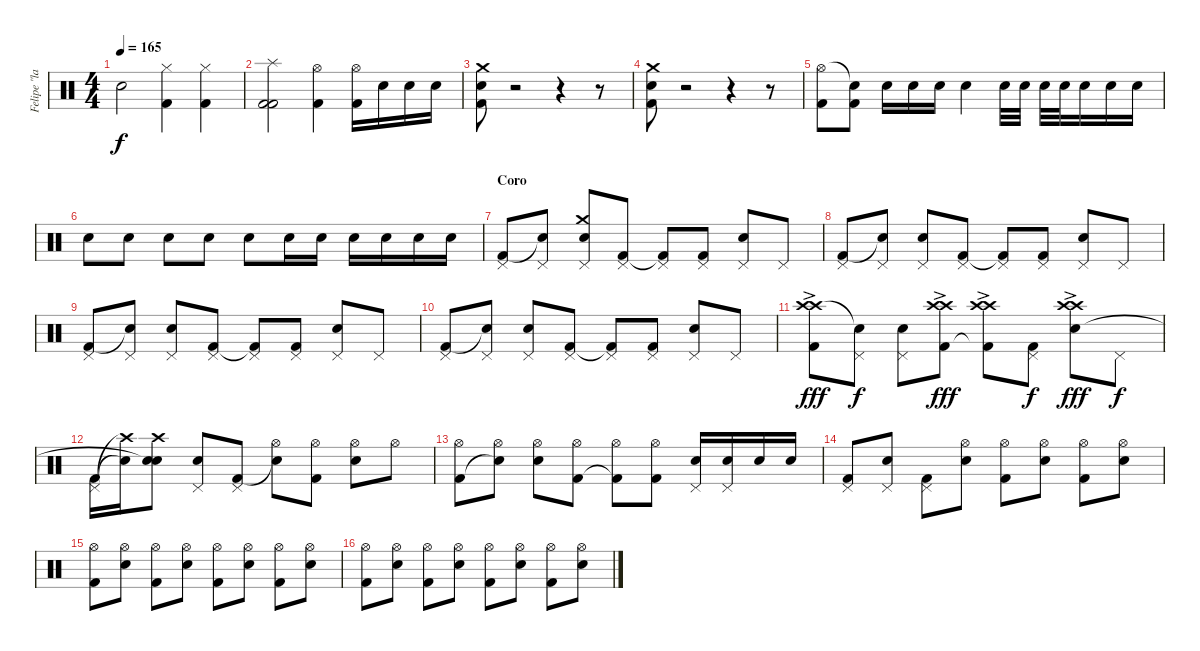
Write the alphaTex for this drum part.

\track ("Felipe \"la caponera\" Muñoz" "Felipe \"la") {instrument percussion}
\staff {score}
\articulation defaults
\ts (4 4)
\tempo 165
\clef neutral
\ks c "Electric Snare (hit)".2{dy f}
("Hi-Hat (closed)" "Kick (hit) 2").4 ("Hi-Hat (closed)" "Kick (hit) 2").4 |
("Splash (hit)" "Kick (hit) 2" "Kick (hit) 2").2 ("Hi-Hat (open)" "Kick (hit) 2").4 ("Hi-Hat (open)" "Kick (hit) 2").16 "Electric Snare (hit)".16 "Electric Snare (hit)".16 "Electric Snare (hit)".16 |
("Crash medium (hit)" "Electric Snare (hit)" "Kick (hit) 2").8 r.2 r.4 r.8 |
("Crash medium (hit)" "Electric Snare (hit)" "Kick (hit) 2").8 r.2 r.4 r.8 |
("Hi-Hat (open)" "Kick (hit) 2").8 ("Snare (hit)"{t} "Kick (hit) 2").8 "Electric Snare (hit)".16 "Electric Snare (hit)".16 "Electric Snare (hit)".16 "Electric Snare (hit)".4 "Electric Snare (hit)".32 "Electric Snare (hit)".32 "Electric Snare (hit)".32 "Electric Snare (hit)".32 "Electric Snare (hit)".16 "Electric Snare (hit)".16 "Electric Snare (hit)".16 |
"Electric Snare (hit)".8 "Electric Snare (hit)".8 "Electric Snare (hit)".8 "Electric Snare (hit)".8 "Electric Snare (hit)".8 "Electric Snare (hit)".16 "Electric Snare (hit)".16 "Electric Snare (hit)".16 "Electric Snare (hit)".16 "Electric Snare (hit)".16 "Electric Snare (hit)".16 |
\section ("" "Coro")
("Pedal Hi-Hat (hit)" "Kick (hit) 2").8 ("Pedal Hi-Hat (hit)" "Snare (hit)"{t}).8 ("Pedal Hi-Hat (hit)" "Crash medium (hit)" "Electric Snare (hit)").8 ("Pedal Hi-Hat (hit)" "Kick (hit) 2").8 ("Pedal Hi-Hat (hit)" "Kick (hit) 2"{t}).8 ("Pedal Hi-Hat (hit)" "Kick (hit) 2").8 ("Pedal Hi-Hat (hit)" "Electric Snare (hit)").8 "Pedal Hi-Hat (hit)".8 |
("Pedal Hi-Hat (hit)" "Kick (hit) 2").8 ("Pedal Hi-Hat (hit)" "Snare (hit)"{t}).8 ("Pedal Hi-Hat (hit)" "Electric Snare (hit)").8 ("Pedal Hi-Hat (hit)" "Kick (hit) 2").8 ("Pedal Hi-Hat (hit)" "Kick (hit) 2"{t}).8 ("Pedal Hi-Hat (hit)" "Kick (hit) 2").8 ("Pedal Hi-Hat (hit)" "Electric Snare (hit)").8 "Pedal Hi-Hat (hit)".8 |
("Pedal Hi-Hat (hit)" "Kick (hit) 2").8 ("Pedal Hi-Hat (hit)" "Snare (hit)"{t}).8 ("Pedal Hi-Hat (hit)" "Electric Snare (hit)").8 ("Pedal Hi-Hat (hit)" "Kick (hit) 2").8 ("Pedal Hi-Hat (hit)" "Kick (hit) 2"{t}).8 ("Pedal Hi-Hat (hit)" "Kick (hit) 2").8 ("Pedal Hi-Hat (hit)" "Electric Snare (hit)").8 "Pedal Hi-Hat (hit)".8 |
("Pedal Hi-Hat (hit)" "Kick (hit) 2").8 ("Pedal Hi-Hat (hit)" "Snare (hit)"{t}).8 ("Pedal Hi-Hat (hit)" "Electric Snare (hit)").8 ("Pedal Hi-Hat (hit)" "Kick (hit) 2").8 ("Pedal Hi-Hat (hit)" "Kick (hit) 2"{t}).8 ("Pedal Hi-Hat (hit)" "Kick (hit) 2").8 ("Pedal Hi-Hat (hit)" "Electric Snare (hit)").8 "Pedal Hi-Hat (hit)".8 |
("Crash high (hit)"{ac} "Crash high (hit)"{ac} "Kick (hit) 2").8{dy fff} ("Pedal Hi-Hat (hit)" "Snare (hit)"{t}).8{dy f} ("Pedal Hi-Hat (hit)" "Electric Snare (hit)").8 ("Crash high (hit)"{ac} "Crash high (hit)"{ac} "Kick (hit) 2").8{dy fff} ("Crash high (hit)"{ac} "Crash high (hit)"{ac} "Kick (hit) 2"{t}).8 ("Pedal Hi-Hat (hit)" "Kick (hit) 2").8{dy f} ("Crash high (hit)"{ac} "Crash high (hit)"{ac} "Electric Snare (hit)").8{dy fff} "Pedal Hi-Hat (hit)".8{dy f} |
("Pedal Hi-Hat (hit)" "Kick (hit) 2").16 ("Crash high (hit)"{t} "Snare (hit)"{t}).16 ("Crash high (hit)" "Electric Snare (hit)" "Snare (hit)"{t}).8 ("Pedal Hi-Hat (hit)" "Electric Snare (hit)").8 ("Pedal Hi-Hat (hit)" "Kick (hit) 2").8 ("Hi-Hat (open)" "Snare (hit)"{t}).8 ("Hi-Hat (open)" "Kick (hit) 2").8 ("Hi-Hat (open)" "Electric Snare (hit)").8 "Hi-Hat (open)".8 |
("Hi-Hat (open)" "Kick (hit) 2").8 ("Hi-Hat (open)" "Snare (hit)"{t}).8 ("Hi-Hat (open)" "Electric Snare (hit)").8 ("Hi-Hat (open)" "Kick (hit) 2").8 ("Hi-Hat (open)" "Kick (hit) 2"{t}).8 ("Hi-Hat (open)" "Kick (hit) 2").8 ("Pedal Hi-Hat (hit)" "Electric Snare (hit)").16 ("Pedal Hi-Hat (hit)" "Electric Snare (hit)").16 "Electric Snare (hit)".16 "Electric Snare (hit)".16 |
("Pedal Hi-Hat (hit)" "Kick (hit) 2").8 ("Pedal Hi-Hat (hit)" "Electric Snare (hit)").8 ("Pedal Hi-Hat (hit)" "Kick (hit) 2").8 ("Hi-Hat (open)" "Electric Snare (hit)").8 ("Hi-Hat (open)" "Kick (hit) 2").8 ("Hi-Hat (open)" "Electric Snare (hit)").8 ("Hi-Hat (open)" "Kick (hit) 2").8 ("Hi-Hat (open)" "Electric Snare (hit)").8 |
("Hi-Hat (open)" "Kick (hit) 2").8 ("Hi-Hat (open)" "Electric Snare (hit)").8 ("Hi-Hat (open)" "Kick (hit) 2").8 ("Hi-Hat (open)" "Electric Snare (hit)").8 ("Hi-Hat (open)" "Kick (hit) 2").8 ("Hi-Hat (open)" "Electric Snare (hit)").8 ("Hi-Hat (open)" "Kick (hit) 2").8 ("Hi-Hat (open)" "Electric Snare (hit)").8 |
("Hi-Hat (open)" "Kick (hit) 2").8 ("Hi-Hat (open)" "Electric Snare (hit)").8 ("Hi-Hat (open)" "Kick (hit) 2").8 ("Hi-Hat (open)" "Electric Snare (hit)").8 ("Hi-Hat (open)" "Kick (hit) 2").8 ("Hi-Hat (open)" "Electric Snare (hit)").8 ("Hi-Hat (open)" "Kick (hit) 2").8 ("Hi-Hat (open)" "Electric Snare (hit)").8
